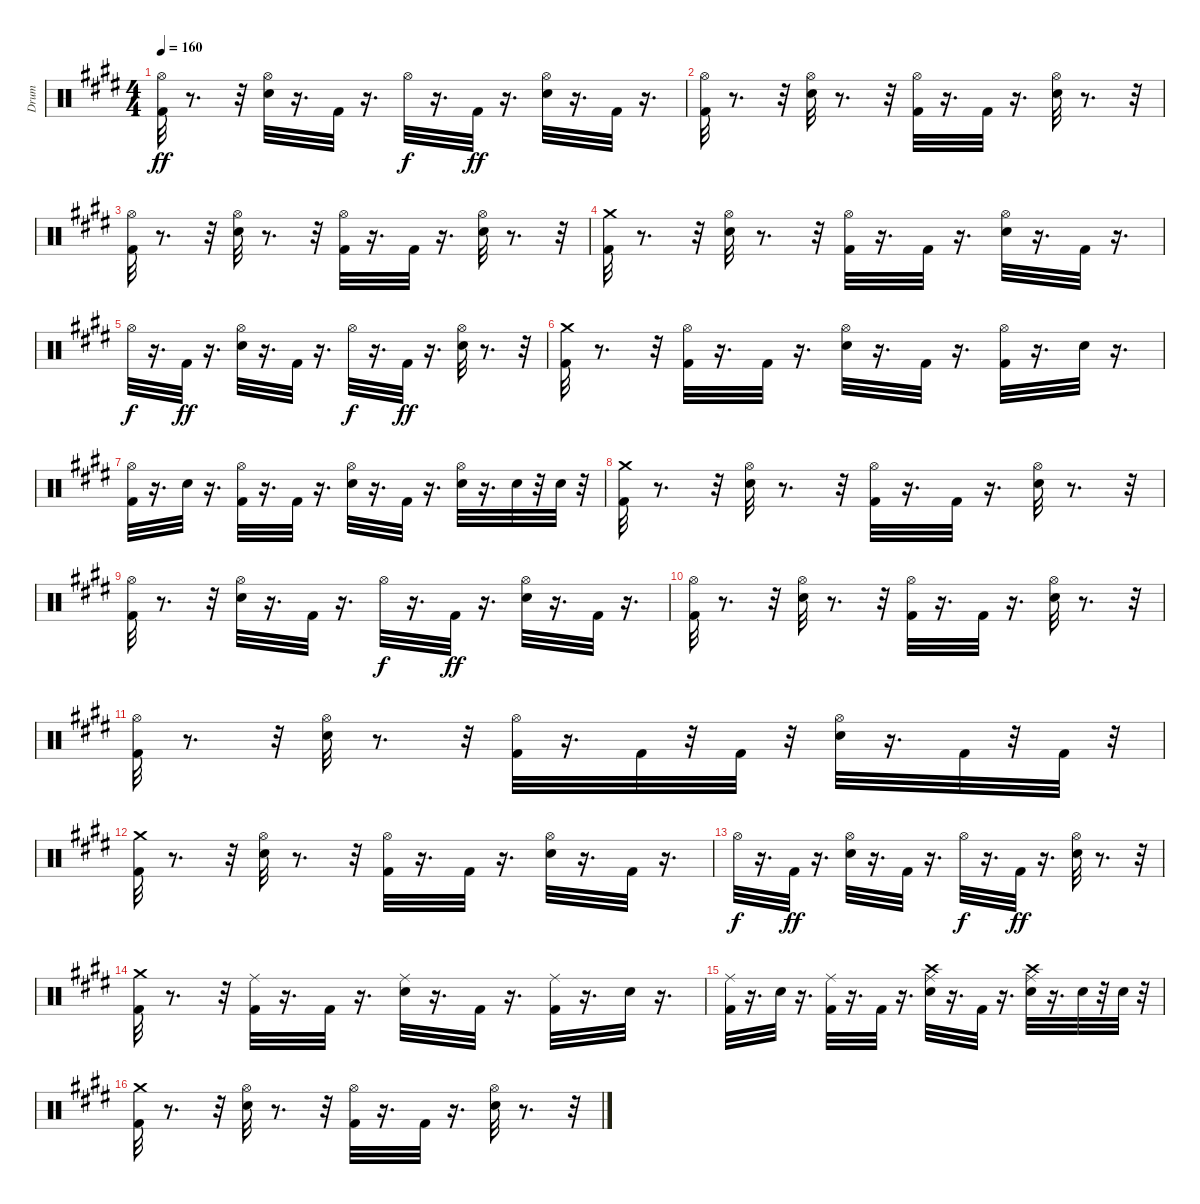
\track ("Drum" "Drum") {instrument percussion}
\staff {score}
\articulation defaults
\ts (4 4)
\tempo 160
\clef neutral
\ks e
("Kick (hit) 2" "Hi-Hat (open)").32{dy ff} r.8{d} r.32 ("Electric Snare (hit)" "Hi-Hat (open)").32 r.16{d} "Kick (hit) 2".32 r.16{d} "Hi-Hat (open)".32{dy f} r.16{d} "Kick (hit) 2".32{dy ff} r.16{d} ("Electric Snare (hit)" "Hi-Hat (open)").32 r.16{d} "Kick (hit) 2".32 r.16{d} |
("Hi-Hat (open)" "Kick (hit) 2").32 r.8{d} r.32 ("Electric Snare (hit)" "Hi-Hat (open)").32 r.8{d} r.32 ("Kick (hit) 2" "Hi-Hat (open)").32 r.16{d} "Kick (hit) 2".32 r.16{d} ("Electric Snare (hit)" "Hi-Hat (open)").32 r.8{d} r.32 |
("Kick (hit) 2" "Hi-Hat (open)").32 r.8{d} r.32 ("Electric Snare (hit)" "Hi-Hat (open)").32 r.8{d} r.32 ("Kick (hit) 2" "Hi-Hat (open)").32 r.16{d} "Kick (hit) 2".32 r.16{d} ("Electric Snare (hit)" "Hi-Hat (open)").32 r.8{d} r.32 |
("Crash medium (hit)" "Kick (hit) 2").32 r.8{d} r.32 ("Electric Snare (hit)" "Hi-Hat (open)").32 r.8{d} r.32 ("Kick (hit) 2" "Hi-Hat (open)").32 r.16{d} "Kick (hit) 2".32 r.16{d} ("Electric Snare (hit)" "Hi-Hat (open)").32 r.16{d} "Kick (hit) 2".32 r.16{d} |
"Hi-Hat (open)".32{dy f} r.16{d} "Kick (hit) 2".32{dy ff} r.16{d} ("Electric Snare (hit)" "Hi-Hat (open)").32 r.16{d} "Kick (hit) 2".32 r.16{d} "Hi-Hat (open)".32{dy f} r.16{d} "Kick (hit) 2".32{dy ff} r.16{d} ("Electric Snare (hit)" "Hi-Hat (open)").32 r.8{d} r.32 |
("Crash medium (hit)" "Kick (hit) 2").32 r.8{d} r.32 ("Kick (hit) 2" "Hi-Hat (open)").32 r.16{d} "Kick (hit) 2".32 r.16{d} ("Electric Snare (hit)" "Hi-Hat (open)").32 r.16{d} "Kick (hit) 2".32 r.16{d} ("Kick (hit) 2" "Hi-Hat (open)").32 r.16{d} "Electric Snare (hit)".32 r.16{d} |
("Kick (hit) 2" "Hi-Hat (open)").32 r.16{d} "Electric Snare (hit)".32 r.16{d} ("Kick (hit) 2" "Hi-Hat (open)").32 r.16{d} "Kick (hit) 2".32 r.16{d} ("Electric Snare (hit)" "Hi-Hat (open)").32 r.16{d} "Kick (hit) 2".32 r.16{d} ("Electric Snare (hit)" "Hi-Hat (open)").32 r.16{d} "Electric Snare (hit)".32 r.32 "Electric Snare (hit)".32 r.32 |
("Crash medium (hit)" "Kick (hit) 2").32 r.8{d} r.32 ("Electric Snare (hit)" "Hi-Hat (open)").32 r.8{d} r.32 ("Kick (hit) 2" "Hi-Hat (open)").32 r.16{d} "Kick (hit) 2".32 r.16{d} ("Electric Snare (hit)" "Hi-Hat (open)").32 r.8{d} r.32 |
("Kick (hit) 2" "Hi-Hat (open)").32 r.8{d} r.32 ("Electric Snare (hit)" "Hi-Hat (open)").32 r.16{d} "Kick (hit) 2".32 r.16{d} "Hi-Hat (open)".32{dy f} r.16{d} "Kick (hit) 2".32{dy ff} r.16{d} ("Electric Snare (hit)" "Hi-Hat (open)").32 r.16{d} "Kick (hit) 2".32 r.16{d} |
("Hi-Hat (open)" "Kick (hit) 2").32 r.8{d} r.32 ("Electric Snare (hit)" "Hi-Hat (open)").32 r.8{d} r.32 ("Kick (hit) 2" "Hi-Hat (open)").32 r.16{d} "Kick (hit) 2".32 r.16{d} ("Electric Snare (hit)" "Hi-Hat (open)").32 r.8{d} r.32 |
("Kick (hit) 2" "Hi-Hat (open)").32 r.8{d} r.32 ("Electric Snare (hit)" "Hi-Hat (open)").32 r.8{d} r.32 ("Kick (hit) 2" "Hi-Hat (open)").32 r.16{d} "Kick (hit) 2".32 r.32 "Kick (hit) 2".32 r.32 ("Electric Snare (hit)" "Hi-Hat (open)").32 r.16{d} "Kick (hit) 2".32 r.32 "Kick (hit) 2".32 r.32 |
("Crash medium (hit)" "Kick (hit) 2").32 r.8{d} r.32 ("Electric Snare (hit)" "Hi-Hat (open)").32 r.8{d} r.32 ("Kick (hit) 2" "Hi-Hat (open)").32 r.16{d} "Kick (hit) 2".32 r.16{d} ("Electric Snare (hit)" "Hi-Hat (open)").32 r.16{d} "Kick (hit) 2".32 r.16{d} |
"Hi-Hat (open)".32{dy f} r.16{d} "Kick (hit) 2".32{dy ff} r.16{d} ("Electric Snare (hit)" "Hi-Hat (open)").32 r.16{d} "Kick (hit) 2".32 r.16{d} "Hi-Hat (open)".32{dy f} r.16{d} "Kick (hit) 2".32{dy ff} r.16{d} ("Electric Snare (hit)" "Hi-Hat (open)").32 r.8{d} r.32 |
("Crash medium (hit)" "Kick (hit) 2").32 r.8{d} r.32 ("Kick (hit) 2" "Ride (middle)").32 r.16{d} "Kick (hit) 2".32 r.16{d} ("Electric Snare (hit)" "Ride (middle)").32 r.16{d} "Kick (hit) 2".32 r.16{d} ("Kick (hit) 2" "Ride (middle)").32 r.16{d} "Electric Snare (hit)".32 r.16{d} |
("Kick (hit) 2" "Ride (middle)").32 r.16{d} "Electric Snare (hit)".32 r.16{d} ("Kick (hit) 2" "Ride (middle)").32 r.16{d} "Kick (hit) 2".32 r.16{d} ("Crash high (hit)" "Electric Snare (hit)" "Ride (middle)").32 r.16{d} "Kick (hit) 2".32 r.16{d} ("Crash high (hit)" "Electric Snare (hit)" "Ride (middle)").32 r.16{d} "Electric Snare (hit)".32 r.32 "Electric Snare (hit)".32 r.32 |
("Crash medium (hit)" "Kick (hit) 2").32 r.8{d} r.32 ("Electric Snare (hit)" "Hi-Hat (open)").32 r.8{d} r.32 ("Kick (hit) 2" "Hi-Hat (open)").32 r.16{d} "Kick (hit) 2".32 r.16{d} ("Electric Snare (hit)" "Hi-Hat (open)").32 r.8{d} r.32
